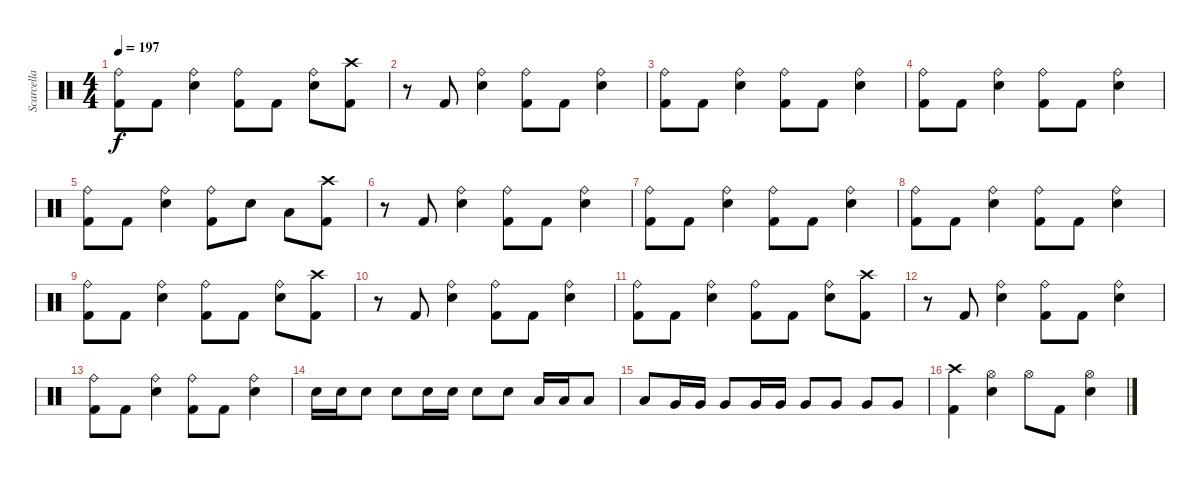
\track ("Scarcella" "Scarcella") {instrument percussion}
\staff {score}
\articulation defaults
\ts (4 4)
\tempo 197
\clef neutral
\ks c
("Ride (bell)" "Kick (hit) 2").8{dy f} "Kick (hit) 2".8 ("Ride (bell)" "Electric Snare (hit)").4 ("Ride (bell)" "Kick (hit) 2").8 "Kick (hit) 2".8 ("Ride (bell)" "Electric Snare (hit)").8 ("Crash high (hit)" "Kick (hit) 2").8 |
r.8 "Kick (hit) 2".8 ("Ride (bell)" "Electric Snare (hit)").4 ("Ride (bell)" "Kick (hit) 2").8 "Kick (hit) 2".8 ("Ride (bell)" "Electric Snare (hit)").4 |
("Ride (bell)" "Kick (hit) 2").8 "Kick (hit) 2".8 ("Ride (bell)" "Electric Snare (hit)").4 ("Ride (bell)" "Kick (hit) 2").8 "Kick (hit) 2".8 ("Ride (bell)" "Electric Snare (hit)").4 |
("Ride (bell)" "Kick (hit) 2").8 "Kick (hit) 2".8 ("Ride (bell)" "Electric Snare (hit)").4 ("Ride (bell)" "Kick (hit) 2").8 "Kick (hit) 2".8 ("Ride (bell)" "Electric Snare (hit)").4 |
("Ride (bell)" "Kick (hit) 2").8 "Kick (hit) 2".8 ("Ride (bell)" "Electric Snare (hit)").4 ("Ride (bell)" "Kick (hit) 2").8 "Electric Snare (hit)".8 "Low Tom (hit)".8 ("Crash high (hit)" "Kick (hit) 2").8 |
r.8 "Kick (hit) 2".8 ("Ride (bell)" "Electric Snare (hit)").4 ("Ride (bell)" "Kick (hit) 2").8 "Kick (hit) 2".8 ("Ride (bell)" "Electric Snare (hit)").4 |
("Ride (bell)" "Kick (hit) 2").8 "Kick (hit) 2".8 ("Ride (bell)" "Electric Snare (hit)").4 ("Ride (bell)" "Kick (hit) 2").8 "Kick (hit) 2".8 ("Ride (bell)" "Electric Snare (hit)").4 |
("Ride (bell)" "Kick (hit) 2").8 "Kick (hit) 2".8 ("Ride (bell)" "Electric Snare (hit)").4 ("Ride (bell)" "Kick (hit) 2").8 "Kick (hit) 2".8 ("Ride (bell)" "Electric Snare (hit)").4 |
("Ride (bell)" "Kick (hit) 2").8 "Kick (hit) 2".8 ("Ride (bell)" "Electric Snare (hit)").4 ("Ride (bell)" "Kick (hit) 2").8 "Kick (hit) 2".8 ("Ride (bell)" "Electric Snare (hit)").8 ("Crash high (hit)" "Kick (hit) 2").8 |
r.8 "Kick (hit) 2".8 ("Ride (bell)" "Electric Snare (hit)").4 ("Ride (bell)" "Kick (hit) 2").8 "Kick (hit) 2".8 ("Ride (bell)" "Electric Snare (hit)").4 |
("Ride (bell)" "Kick (hit) 2").8 "Kick (hit) 2".8 ("Ride (bell)" "Electric Snare (hit)").4 ("Ride (bell)" "Kick (hit) 2").8 "Kick (hit) 2".8 ("Ride (bell)" "Electric Snare (hit)").8 ("Crash high (hit)" "Kick (hit) 2").8 |
r.8 "Kick (hit) 2".8 ("Ride (bell)" "Electric Snare (hit)").4 ("Ride (bell)" "Kick (hit) 2").8 "Kick (hit) 2".8 ("Ride (bell)" "Electric Snare (hit)").4 |
("Ride (bell)" "Kick (hit) 2").8 "Kick (hit) 2".8 ("Ride (bell)" "Electric Snare (hit)").4 ("Ride (bell)" "Kick (hit) 2").8 "Kick (hit) 2".8 ("Ride (bell)" "Electric Snare (hit)").4 |
"Electric Snare (hit)".16 "Electric Snare (hit)".16 "Electric Snare (hit)".8 "Electric Snare (hit)".8 "Electric Snare (hit)".16 "Electric Snare (hit)".16 "Electric Snare (hit)".8 "Electric Snare (hit)".8 "Low Tom (hit)".16 "Low Tom (hit)".16 "Low Tom (hit)".8 |
"Low Tom (hit)".8 "Very Low Tom (hit)".16 "Very Low Tom (hit)".16 "Very Low Tom (hit)".8 "Very Low Tom (hit)".16 "Very Low Tom (hit)".16 "Very Low Tom (hit)".8 "Very Low Tom (hit)".8 "Very Low Tom (hit)".8 "Very Low Tom (hit)".8 |
("Crash high (hit)" "Kick (hit) 2").4 ("Hi-Hat (open)" "Electric Snare (hit)").4 "Hi-Hat (open)".8 "Kick (hit) 2".8 ("Hi-Hat (open)" "Electric Snare (hit)").4
